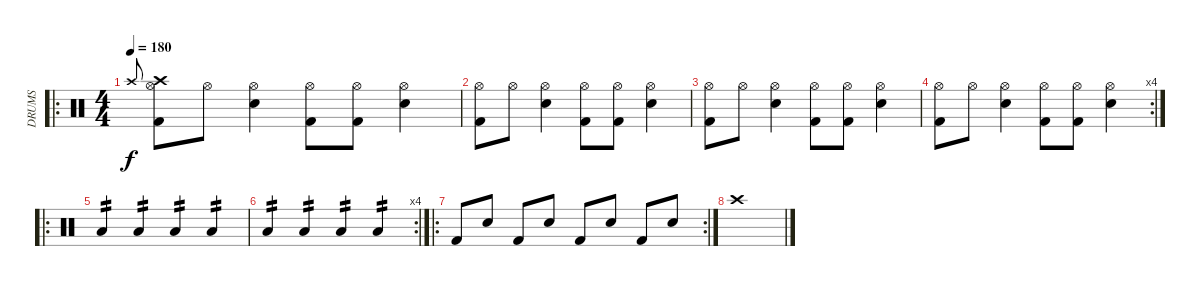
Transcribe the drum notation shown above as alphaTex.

\track ("DRUMS" "DRUMS") {instrument percussion}
\staff {score}
\articulation defaults
\ro
\ts (4 4)
\tempo 180
\clef neutral
\ks c "Crash high (hit)".8{gr onbeat dy f}
("Crash high (hit)" "Hi-Hat (open)" "Kick (hit) 2").8 "Hi-Hat (open)".8 ("Hi-Hat (open)" "Snare (hit) 2").4 ("Hi-Hat (open)" "Kick (hit) 2").8 ("Hi-Hat (open)" "Kick (hit) 2").8 ("Hi-Hat (open)" "Snare (hit) 2").4 |
("Hi-Hat (open)" "Kick (hit) 2").8 "Hi-Hat (open)".8 ("Hi-Hat (open)" "Snare (hit) 2").4 ("Hi-Hat (open)" "Kick (hit) 2").8 ("Hi-Hat (open)" "Kick (hit) 2").8 ("Hi-Hat (open)" "Snare (hit) 2").4 |
("Hi-Hat (open)" "Kick (hit) 2").8 "Hi-Hat (open)".8 ("Hi-Hat (open)" "Snare (hit) 2").4 ("Hi-Hat (open)" "Kick (hit) 2").8 ("Hi-Hat (open)" "Kick (hit) 2").8 ("Hi-Hat (open)" "Snare (hit) 2").4 |
\rc 4
("Hi-Hat (open)" "Kick (hit) 2").8 "Hi-Hat (open)".8 ("Hi-Hat (open)" "Snare (hit) 2").4 ("Hi-Hat (open)" "Kick (hit) 2").8 ("Hi-Hat (open)" "Kick (hit) 2").8 ("Hi-Hat (open)" "Snare (hit) 2").4 |
\ro "Low Floor Tom (hit)".4{tp 2} "Low Floor Tom (hit)".4{tp 2} "Low Floor Tom (hit)".4{tp 2} "Low Floor Tom (hit)".4{tp 2}
|
\rc 4 "Low Floor Tom (hit)".4{tp 2} "Low Floor Tom (hit)".4{tp 2} "Low Floor Tom (hit)".4{tp 2} "Low Floor Tom (hit)".4{tp 2}
|
\ro
\rc 2 "Kick (hit) 2".8 "Snare (hit) 2".8 "Kick (hit) 2".8 "Snare (hit) 2".8 "Kick (hit) 2".8 "Snare (hit) 2".8 "Kick (hit) 2".8 "Snare (hit) 2".8
|
"Crash high (hit)".1
